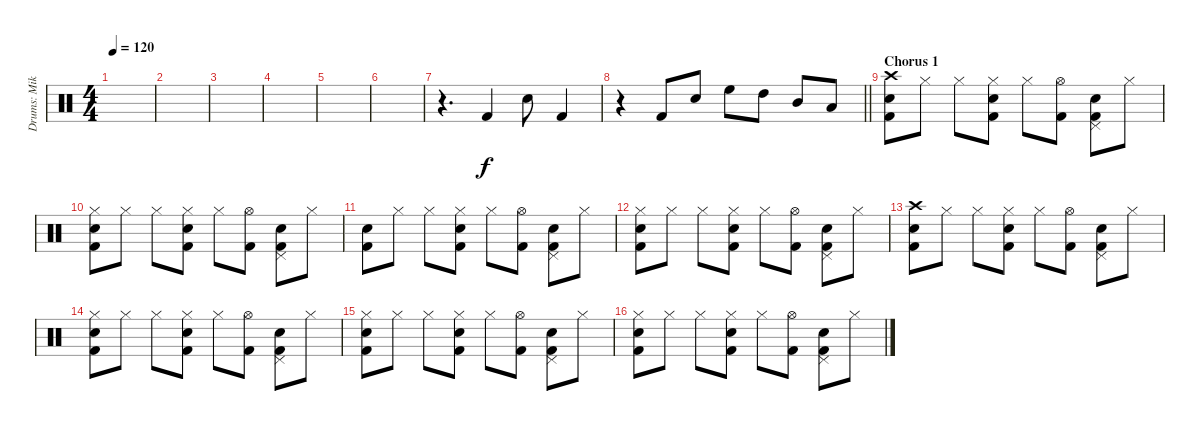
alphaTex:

\track ("Drums: Mike Botts" "Drums: Mik") {instrument percussion}
\staff {score}
\articulation defaults
\ts (4 4)
\tempo 120
\clef neutral
\ks c
|
|
|
|
|
|
r.4{d} "Kick (hit) 2".4 "Snare (hit) 2".8 "Kick (hit) 2".4 |
\barLineRight lightlight
r.4 "Kick (hit) 2".8 "Snare (hit) 2".8 "High Floor Tom (hit)".8 "High Tom (hit)".8 "Mid Tom (hit)".8 "Low Tom (hit)".8 |
\section ("" "Chorus 1")
("Crash high (hit)" "Snare (hit) 2" "Kick (hit) 2").8 "Hi-Hat (closed)".8 "Hi-Hat (closed)".8 ("Hi-Hat (closed)" "Snare (hit) 2" "Kick (hit) 2").8 "Hi-Hat (closed)".8 ("Hi-Hat (open)" "Kick (hit) 2").8 ("Pedal Hi-Hat (hit)" "Snare (hit) 2" "Kick (hit) 2").8 "Hi-Hat (closed)".8 |
("Hi-Hat (closed)" "Snare (hit) 2" "Kick (hit) 2").8 "Hi-Hat (closed)".8 "Hi-Hat (closed)".8 ("Hi-Hat (closed)" "Snare (hit) 2" "Kick (hit) 2").8 "Hi-Hat (closed)".8 ("Hi-Hat (open)" "Kick (hit) 2").8 ("Pedal Hi-Hat (hit)" "Snare (hit) 2" "Kick (hit) 2").8 "Hi-Hat (closed)".8 |
("Snare (hit) 2" "Kick (hit) 2").8 "Hi-Hat (closed)".8 "Hi-Hat (closed)".8 ("Hi-Hat (closed)" "Snare (hit) 2" "Kick (hit) 2").8 "Hi-Hat (closed)".8 ("Hi-Hat (open)" "Kick (hit) 2").8 ("Pedal Hi-Hat (hit)" "Snare (hit) 2" "Kick (hit) 2").8 "Hi-Hat (closed)".8 |
("Hi-Hat (closed)" "Snare (hit) 2" "Kick (hit) 2").8 "Hi-Hat (closed)".8 "Hi-Hat (closed)".8 ("Hi-Hat (closed)" "Snare (hit) 2" "Kick (hit) 2").8 "Hi-Hat (closed)".8 ("Hi-Hat (open)" "Kick (hit) 2").8 ("Pedal Hi-Hat (hit)" "Snare (hit) 2" "Kick (hit) 2").8 "Hi-Hat (closed)".8 |
("Crash high (hit)" "Snare (hit) 2" "Kick (hit) 2").8 "Hi-Hat (closed)".8 "Hi-Hat (closed)".8 ("Hi-Hat (closed)" "Snare (hit) 2" "Kick (hit) 2").8 "Hi-Hat (closed)".8 ("Hi-Hat (open)" "Kick (hit) 2").8 ("Pedal Hi-Hat (hit)" "Snare (hit) 2" "Kick (hit) 2").8 "Hi-Hat (closed)".8 |
("Hi-Hat (closed)" "Snare (hit) 2" "Kick (hit) 2").8 "Hi-Hat (closed)".8 "Hi-Hat (closed)".8 ("Hi-Hat (closed)" "Snare (hit) 2" "Kick (hit) 2").8 "Hi-Hat (closed)".8 ("Hi-Hat (open)" "Kick (hit) 2").8 ("Pedal Hi-Hat (hit)" "Snare (hit) 2" "Kick (hit) 2").8 "Hi-Hat (closed)".8 |
("Hi-Hat (closed)" "Snare (hit) 2" "Kick (hit) 2").8 "Hi-Hat (closed)".8 "Hi-Hat (closed)".8 ("Hi-Hat (closed)" "Snare (hit) 2" "Kick (hit) 2").8 "Hi-Hat (closed)".8 ("Hi-Hat (open)" "Kick (hit) 2").8 ("Pedal Hi-Hat (hit)" "Snare (hit) 2" "Kick (hit) 2").8 "Hi-Hat (closed)".8 |
("Hi-Hat (closed)" "Snare (hit) 2" "Kick (hit) 2").8 "Hi-Hat (closed)".8 "Hi-Hat (closed)".8 ("Hi-Hat (closed)" "Snare (hit) 2" "Kick (hit) 2").8 "Hi-Hat (closed)".8 ("Hi-Hat (open)" "Kick (hit) 2").8 ("Pedal Hi-Hat (hit)" "Snare (hit) 2" "Kick (hit) 2").8 "Hi-Hat (closed)".8
